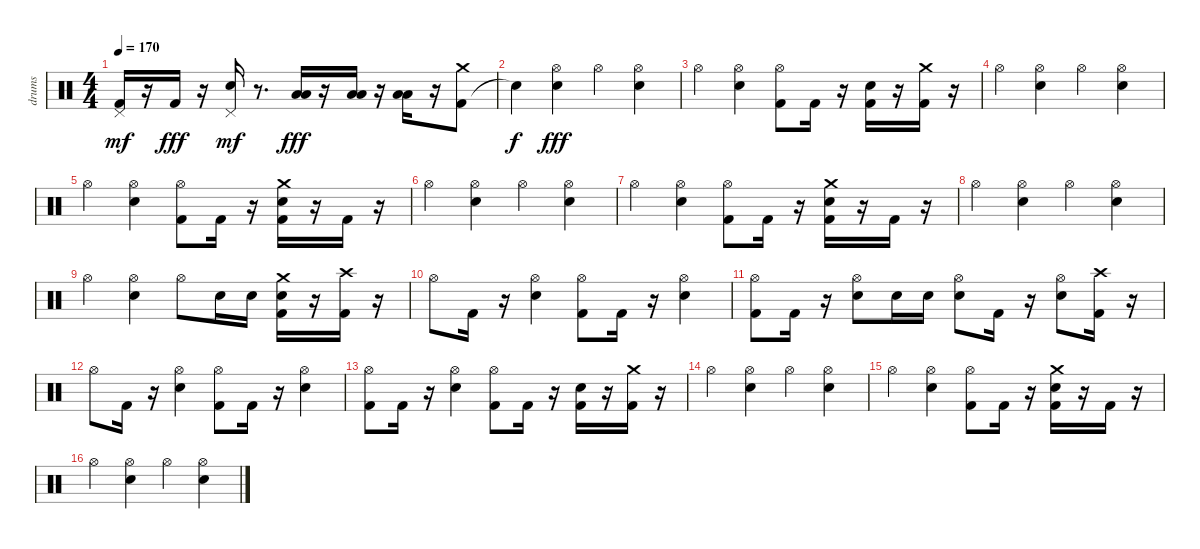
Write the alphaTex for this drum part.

\track ("drums" "drums") {instrument percussion}
\staff {score}
\articulation defaults
\ts (4 4)
\tempo 170
\clef neutral
\ks c
("Kick (hit) 2" "Pedal Hi-Hat (hit)").16{dy mf} r.16 "Kick (hit) 2".16{dy fff} r.16 ("Electric Snare (hit)" "Pedal Hi-Hat (hit)").16{dy mf} r.8{d} ("Low Tom (hit)" "Low Floor Tom (hit)").16{dy fff} r.16 ("Low Tom (hit)" "Low Floor Tom (hit)").16 r.16 ("Low Floor Tom (hit)" "Low Tom (hit)").16 r.16 ("Kick (hit) 2" "Crash medium (hit)").8 |
"Snare (hit)"{t}.4{dy f} ("Hi-Hat (open)" "Electric Snare (hit)").4{dy fff} "Hi-Hat (open)".4 ("Electric Snare (hit)" "Hi-Hat (open)").4 |
"Hi-Hat (open)".4 ("Electric Snare (hit)" "Hi-Hat (open)").4 ("Kick (hit) 2" "Hi-Hat (open)").8 "Kick (hit) 2".16 r.16 ("Kick (hit) 2" "Electric Snare (hit)").16 r.16 ("Kick (hit) 2" "Crash medium (hit)").16 r.16 |
"Hi-Hat (open)".4 ("Electric Snare (hit)" "Hi-Hat (open)").4 "Hi-Hat (open)".4 ("Electric Snare (hit)" "Hi-Hat (open)").4 |
"Hi-Hat (open)".4 ("Electric Snare (hit)" "Hi-Hat (open)").4 ("Kick (hit) 2" "Hi-Hat (open)").8 "Kick (hit) 2".16 r.16 ("Kick (hit) 2" "Electric Snare (hit)" "Crash medium (hit)").16 r.16 "Kick (hit) 2".16 r.16 |
"Hi-Hat (open)".4 ("Electric Snare (hit)" "Hi-Hat (open)").4 "Hi-Hat (open)".4 ("Electric Snare (hit)" "Hi-Hat (open)").4 |
"Hi-Hat (open)".4 ("Electric Snare (hit)" "Hi-Hat (open)").4 ("Kick (hit) 2" "Hi-Hat (open)").8 "Kick (hit) 2".16 r.16 ("Kick (hit) 2" "Electric Snare (hit)" "Crash medium (hit)").16 r.16 "Kick (hit) 2".16 r.16 |
"Hi-Hat (open)".4 ("Electric Snare (hit)" "Hi-Hat (open)").4 "Hi-Hat (open)".4 ("Electric Snare (hit)" "Hi-Hat (open)").4 |
"Hi-Hat (open)".4 ("Electric Snare (hit)" "Hi-Hat (open)").4 "Hi-Hat (open)".8 "Electric Snare (hit)".16 "Electric Snare (hit)".16 ("Kick (hit) 2" "Electric Snare (hit)" "Crash medium (hit)").16 r.16 ("Kick (hit) 2" "Crash high (hit)").16 r.16 |
"Hi-Hat (open)".8 "Kick (hit) 2".16 r.16 ("Electric Snare (hit)" "Hi-Hat (open)").4 ("Kick (hit) 2" "Hi-Hat (open)").8 "Kick (hit) 2".16 r.16 ("Electric Snare (hit)" "Hi-Hat (open)").4 |
("Kick (hit) 2" "Hi-Hat (open)").8 "Kick (hit) 2".16 r.16 ("Electric Snare (hit)" "Hi-Hat (open)").8 "Electric Snare (hit)".16 "Electric Snare (hit)".16 ("Hi-Hat (open)" "Electric Snare (hit)").8 "Kick (hit) 2".16 r.16 ("Hi-Hat (open)" "Electric Snare (hit)").8 ("Kick (hit) 2" "Crash high (hit)").16 r.16 |
"Hi-Hat (open)".8 "Kick (hit) 2".16 r.16 ("Electric Snare (hit)" "Hi-Hat (open)").4 ("Kick (hit) 2" "Hi-Hat (open)").8 "Kick (hit) 2".16 r.16 ("Electric Snare (hit)" "Hi-Hat (open)").4 |
("Kick (hit) 2" "Hi-Hat (open)").8 "Kick (hit) 2".16 r.16 ("Electric Snare (hit)" "Hi-Hat (open)").4 ("Kick (hit) 2" "Hi-Hat (open)").8 "Kick (hit) 2".16 r.16 ("Kick (hit) 2" "Electric Snare (hit)").16 r.16 ("Kick (hit) 2" "Crash medium (hit)").16 r.16 |
"Hi-Hat (open)".4 ("Electric Snare (hit)" "Hi-Hat (open)").4 "Hi-Hat (open)".4 ("Electric Snare (hit)" "Hi-Hat (open)").4 |
"Hi-Hat (open)".4 ("Electric Snare (hit)" "Hi-Hat (open)").4 ("Kick (hit) 2" "Hi-Hat (open)").8 "Kick (hit) 2".16 r.16 ("Kick (hit) 2" "Electric Snare (hit)" "Crash medium (hit)").16 r.16 "Kick (hit) 2".16 r.16 |
"Hi-Hat (open)".4 ("Electric Snare (hit)" "Hi-Hat (open)").4 "Hi-Hat (open)".4 ("Electric Snare (hit)" "Hi-Hat (open)").4
